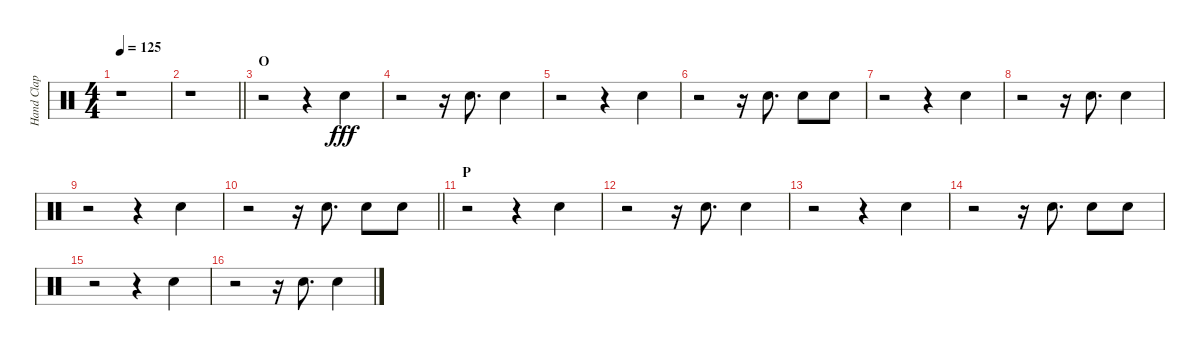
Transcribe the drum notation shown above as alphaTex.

\track ("Hand Clap" "Hand Clap") {instrument percussion}
\staff {score}
\articulation defaults
\ts (4 4)
\tempo 125
\clef neutral
\ks c
r.1{dy fff} |
\barLineRight lightlight
r.1 |
\section ("" "O")
r.2 r.4 "Hand Clap (hit)".4 |
r.2 r.16 "Hand Clap (hit)".8{d} "Hand Clap (hit)".4 |
r.2 r.4 "Hand Clap (hit)".4 |
r.2 r.16 "Hand Clap (hit)".8{d} "Hand Clap (hit)".8 "Hand Clap (hit)".8 |
r.2 r.4 "Hand Clap (hit)".4 |
r.2 r.16 "Hand Clap (hit)".8{d} "Hand Clap (hit)".4 |
r.2 r.4 "Hand Clap (hit)".4 |
\barLineRight lightlight
r.2 r.16 "Hand Clap (hit)".8{d} "Hand Clap (hit)".8 "Hand Clap (hit)".8 |
\section ("" "P")
r.2 r.4 "Hand Clap (hit)".4 |
r.2 r.16 "Hand Clap (hit)".8{d} "Hand Clap (hit)".4 |
r.2 r.4 "Hand Clap (hit)".4 |
r.2 r.16 "Hand Clap (hit)".8{d} "Hand Clap (hit)".8 "Hand Clap (hit)".8 |
r.2 r.4 "Hand Clap (hit)".4 |
r.2 r.16 "Hand Clap (hit)".8{d} "Hand Clap (hit)".4
